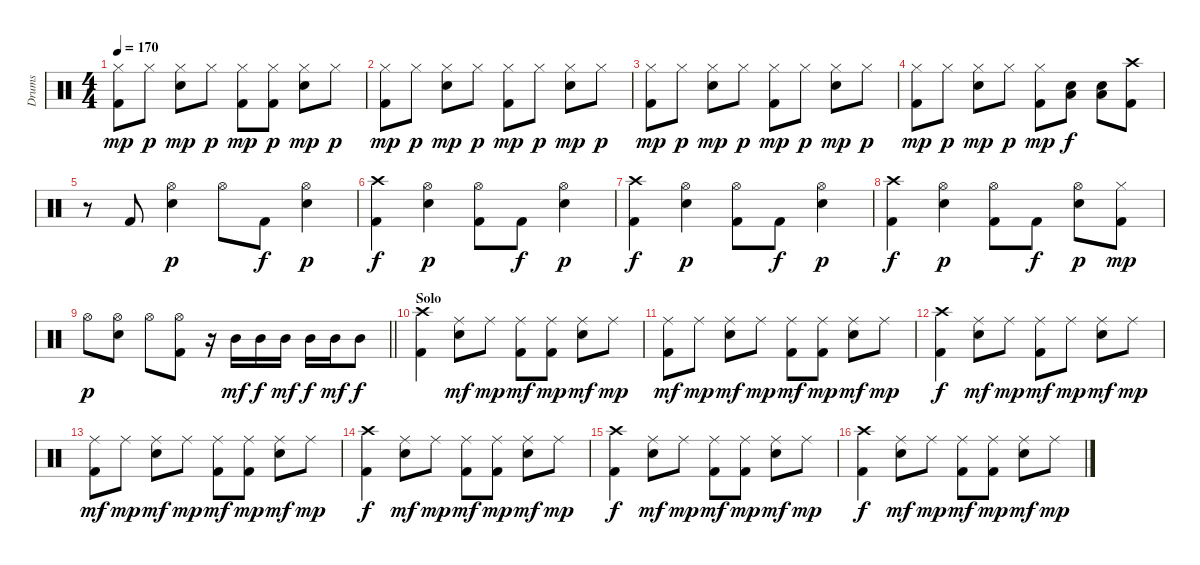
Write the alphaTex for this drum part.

\track ("Drums" "Drums") {instrument percussion}
\staff {score}
\articulation defaults
\ts (4 4)
\tempo 170
\clef neutral
\ks c
("Hi-Hat (closed)" "Kick (hit) 2").8{dy mp} "Hi-Hat (closed)".8{dy p} ("Hi-Hat (closed)" "Electric Snare (hit)").8{dy mp} "Hi-Hat (closed)".8{dy p} ("Hi-Hat (closed)" "Kick (hit) 2").8{dy mp} ("Hi-Hat (closed)" "Kick (hit) 2").8{dy p} ("Hi-Hat (closed)" "Electric Snare (hit)").8{dy mp} "Hi-Hat (closed)".8{dy p} |
("Hi-Hat (closed)" "Kick (hit) 2").8{dy mp} "Hi-Hat (closed)".8{dy p} ("Hi-Hat (closed)" "Electric Snare (hit)").8{dy mp} "Hi-Hat (closed)".8{dy p} ("Hi-Hat (closed)" "Kick (hit) 2").8{dy mp} "Hi-Hat (closed)".8{dy p} ("Hi-Hat (closed)" "Electric Snare (hit)").8{dy mp} "Hi-Hat (closed)".8{dy p} |
("Hi-Hat (closed)" "Kick (hit) 2").8{dy mp} "Hi-Hat (closed)".8{dy p} ("Hi-Hat (closed)" "Electric Snare (hit)").8{dy mp} "Hi-Hat (closed)".8{dy p} ("Hi-Hat (closed)" "Kick (hit) 2").8{dy mp} "Hi-Hat (closed)".8{dy p} ("Hi-Hat (closed)" "Electric Snare (hit)").8{dy mp} "Hi-Hat (closed)".8{dy p} |
("Hi-Hat (closed)" "Kick (hit) 2").8{dy mp} "Hi-Hat (closed)".8{dy p} ("Hi-Hat (closed)" "Electric Snare (hit)").8{dy mp} "Hi-Hat (closed)".8{dy p} ("Hi-Hat (closed)" "Kick (hit) 2").8{dy mp} ("Electric Snare (hit)" "Low Tom (hit)").8{dy f} ("Electric Snare (hit)" "Low Tom (hit)").8 ("Crash high (hit)" "Kick (hit) 2").8 |
r.8 "Kick (hit) 2".8 ("Hi-Hat (open)" "Electric Snare (hit)").4{dy p} "Hi-Hat (open)".8 "Kick (hit) 2".8{dy f} ("Hi-Hat (open)" "Electric Snare (hit)").4{dy p} |
("Crash high (hit)" "Kick (hit) 2").4{dy f} ("Hi-Hat (open)" "Electric Snare (hit)").4{dy p} ("Hi-Hat (open)" "Kick (hit) 2").8 "Kick (hit) 2".8{dy f} ("Hi-Hat (open)" "Electric Snare (hit)").4{dy p} |
("Crash high (hit)" "Kick (hit) 2").4{dy f} ("Hi-Hat (open)" "Electric Snare (hit)").4{dy p} ("Hi-Hat (open)" "Kick (hit) 2").8 "Kick (hit) 2".8{dy f} ("Hi-Hat (open)" "Electric Snare (hit)").4{dy p} |
("Crash high (hit)" "Kick (hit) 2").4{dy f} ("Hi-Hat (open)" "Electric Snare (hit)").4{dy p} ("Hi-Hat (open)" "Kick (hit) 2").8 "Kick (hit) 2".8{dy f} ("Hi-Hat (open)" "Electric Snare (hit)").8{dy p} ("Hi-Hat (closed)" "Kick (hit) 2").8{dy mp} |
\barLineRight lightlight "Hi-Hat (open)".8{dy p}
("Hi-Hat (open)" "Electric Snare (hit)").8 "Hi-Hat (open)".8 ("Hi-Hat (open)" "Kick (hit) 2").8 r.16 "Mid Tom (hit)".16{dy mf} "Mid Tom (hit)".16{dy f} "Mid Tom (hit)".16{dy mf} "Mid Tom (hit)".16{dy f} "Mid Tom (hit)".16{dy mf} "Mid Tom (hit)".8{dy f} |
\section ("" "Solo")
("Crash high (hit)" "Kick (hit) 2").4 ("Ride (middle)" "Electric Snare (hit)").8{dy mf} "Ride (middle)".8{dy mp} ("Ride (middle)" "Kick (hit) 2").8{dy mf} ("Ride (middle)" "Kick (hit) 2").8{dy mp} ("Ride (middle)" "Electric Snare (hit)").8{dy mf} "Ride (middle)".8{dy mp} |
("Ride (middle)" "Kick (hit) 2").8{dy mf} "Ride (middle)".8{dy mp} ("Ride (middle)" "Electric Snare (hit)").8{dy mf} "Ride (middle)".8{dy mp} ("Ride (middle)" "Kick (hit) 2").8{dy mf} ("Ride (middle)" "Kick (hit) 2").8{dy mp} ("Ride (middle)" "Electric Snare (hit)").8{dy mf} "Ride (middle)".8{dy mp} |
("Crash high (hit)" "Kick (hit) 2").4{dy f} ("Ride (middle)" "Electric Snare (hit)").8{dy mf} "Ride (middle)".8{dy mp} ("Ride (middle)" "Kick (hit) 2").8{dy mf} "Ride (middle)".8{dy mp} ("Ride (middle)" "Electric Snare (hit)").8{dy mf} "Ride (middle)".8{dy mp} |
("Ride (middle)" "Kick (hit) 2").8{dy mf} "Ride (middle)".8{dy mp} ("Ride (middle)" "Electric Snare (hit)").8{dy mf} "Ride (middle)".8{dy mp} ("Ride (middle)" "Kick (hit) 2").8{dy mf} ("Ride (middle)" "Kick (hit) 2").8{dy mp} ("Ride (middle)" "Electric Snare (hit)").8{dy mf} "Ride (middle)".8{dy mp} |
("Crash high (hit)" "Kick (hit) 2").4{dy f} ("Ride (middle)" "Electric Snare (hit)").8{dy mf} "Ride (middle)".8{dy mp} ("Ride (middle)" "Kick (hit) 2").8{dy mf} ("Ride (middle)" "Kick (hit) 2").8{dy mp} ("Ride (middle)" "Electric Snare (hit)").8{dy mf} "Ride (middle)".8{dy mp} |
("Crash high (hit)" "Kick (hit) 2").4{dy f} ("Ride (middle)" "Electric Snare (hit)").8{dy mf} "Ride (middle)".8{dy mp} ("Ride (middle)" "Kick (hit) 2").8{dy mf} ("Ride (middle)" "Kick (hit) 2").8{dy mp} ("Ride (middle)" "Electric Snare (hit)").8{dy mf} "Ride (middle)".8{dy mp} |
("Crash high (hit)" "Kick (hit) 2").4{dy f} ("Ride (middle)" "Electric Snare (hit)").8{dy mf} "Ride (middle)".8{dy mp} ("Ride (middle)" "Kick (hit) 2").8{dy mf} ("Ride (middle)" "Kick (hit) 2").8{dy mp} ("Ride (middle)" "Electric Snare (hit)").8{dy mf} "Ride (middle)".8{dy mp}
